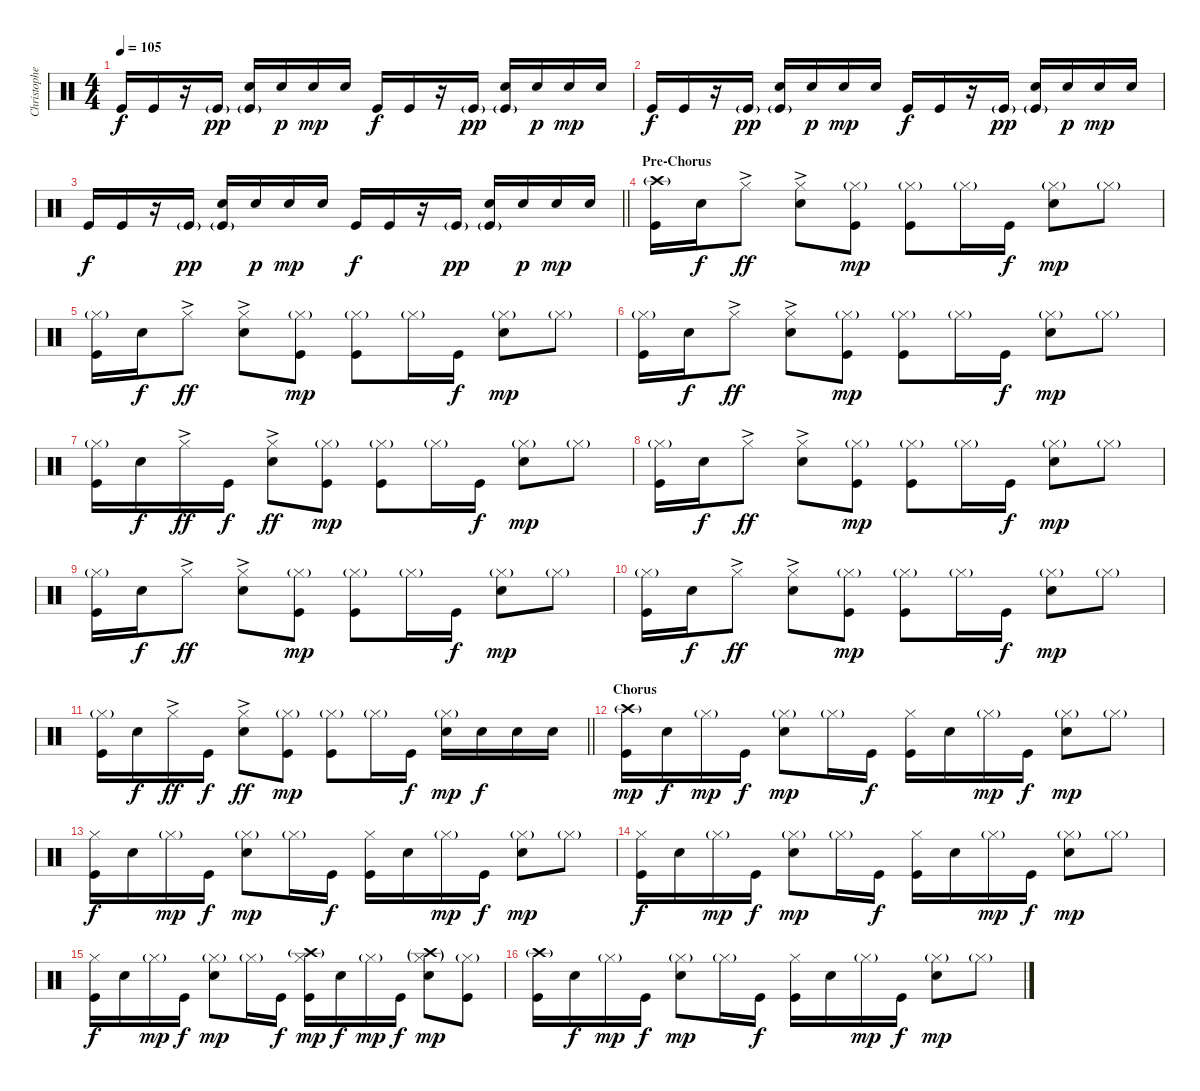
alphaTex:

\track ("Christopher - Drums" "Christophe") {instrument percussion}
\staff {score}
\articulation defaults
\ts (4 4)
\tempo 105
\clef neutral
\ks c "Kick (hit)".16{dy f} "Kick (hit)".16
r.16 "Kick (hit)"{g}.16{dy pp} ("Snare (hit) 2" "Kick (hit)"{g}).16 "Snare (hit) 2".16{dy p} "Snare (hit) 2".16{dy mp} "Snare (hit) 2".16 "Kick (hit)".16{dy f} "Kick (hit)".16 r.16 "Kick (hit)"{g}.16{dy pp} ("Snare (hit) 2" "Kick (hit)"{g}).16 "Snare (hit) 2".16{dy p} "Snare (hit) 2".16{dy mp} "Snare (hit) 2".16 |
"Kick (hit)".16{dy f} "Kick (hit)".16 r.16 "Kick (hit)"{g}.16{dy pp} ("Snare (hit) 2" "Kick (hit)"{g}).16 "Snare (hit) 2".16{dy p} "Snare (hit) 2".16{dy mp} "Snare (hit) 2".16 "Kick (hit)".16{dy f} "Kick (hit)".16 r.16 "Kick (hit)"{g}.16{dy pp} ("Snare (hit) 2" "Kick (hit)"{g}).16 "Snare (hit) 2".16{dy p} "Snare (hit) 2".16{dy mp} "Snare (hit) 2".16 |
\barLineRight lightlight "Kick (hit)".16{dy f} "Kick (hit)".16
r.16 "Kick (hit)"{g}.16{dy pp} ("Snare (hit) 2" "Kick (hit)"{g}).16 "Snare (hit) 2".16{dy p} "Snare (hit) 2".16{dy mp} "Snare (hit) 2".16 "Kick (hit)".16{dy f} "Kick (hit)".16 r.16 "Kick (hit)"{g}.16{dy pp} ("Snare (hit) 2" "Kick (hit)"{g}).16 "Snare (hit) 2".16{dy p} "Snare (hit) 2".16{dy mp} "Snare (hit) 2".16 |
\section ("" "Pre-Chorus")
("Crash high (hit)"{g} "Kick (hit)").16 "Snare (hit) 2".16{dy f} "Hi-Hat (closed)"{ac}.8{dy ff} ("Hi-Hat (closed)"{ac} "Snare (hit) 2").8 ("Hi-Hat (closed)"{g} "Kick (hit)").8{dy mp} ("Hi-Hat (closed)"{g} "Kick (hit)").8 "Hi-Hat (closed)"{g}.16 "Kick (hit)".16{dy f} ("Hi-Hat (closed)"{g} "Snare (hit) 2").8{dy mp} "Hi-Hat (closed)"{g}.8 |
("Hi-Hat (closed)"{g} "Kick (hit)").16 "Snare (hit) 2".16{dy f} "Hi-Hat (closed)"{ac}.8{dy ff} ("Hi-Hat (closed)"{ac} "Snare (hit) 2").8 ("Hi-Hat (closed)"{g} "Kick (hit)").8{dy mp} ("Hi-Hat (closed)"{g} "Kick (hit)").8 "Hi-Hat (closed)"{g}.16 "Kick (hit)".16{dy f} ("Hi-Hat (closed)"{g} "Snare (hit) 2").8{dy mp} "Hi-Hat (closed)"{g}.8 |
("Hi-Hat (closed)"{g} "Kick (hit)").16 "Snare (hit) 2".16{dy f} "Hi-Hat (closed)"{ac}.8{dy ff} ("Hi-Hat (closed)"{ac} "Snare (hit) 2").8 ("Hi-Hat (closed)"{g} "Kick (hit)").8{dy mp} ("Hi-Hat (closed)"{g} "Kick (hit)").8 "Hi-Hat (closed)"{g}.16 "Kick (hit)".16{dy f} ("Hi-Hat (closed)"{g} "Snare (hit) 2").8{dy mp} "Hi-Hat (closed)"{g}.8 |
("Hi-Hat (closed)"{g} "Kick (hit)").16 "Snare (hit) 2".16{dy f} "Hi-Hat (closed)"{ac}.16{dy ff} "Kick (hit)".16{dy f} ("Hi-Hat (closed)"{ac} "Snare (hit) 2").8{dy ff} ("Hi-Hat (closed)"{g} "Kick (hit)").8{dy mp} ("Hi-Hat (closed)"{g} "Kick (hit)").8 "Hi-Hat (closed)"{g}.16 "Kick (hit)".16{dy f} ("Hi-Hat (closed)"{g} "Snare (hit) 2").8{dy mp} "Hi-Hat (closed)"{g}.8 |
("Hi-Hat (closed)"{g} "Kick (hit)").16 "Snare (hit) 2".16{dy f} "Hi-Hat (closed)"{ac}.8{dy ff} ("Hi-Hat (closed)"{ac} "Snare (hit) 2").8 ("Hi-Hat (closed)"{g} "Kick (hit)").8{dy mp} ("Hi-Hat (closed)"{g} "Kick (hit)").8 "Hi-Hat (closed)"{g}.16 "Kick (hit)".16{dy f} ("Hi-Hat (closed)"{g} "Snare (hit) 2").8{dy mp} "Hi-Hat (closed)"{g}.8 |
("Hi-Hat (closed)"{g} "Kick (hit)").16 "Snare (hit) 2".16{dy f} "Hi-Hat (closed)"{ac}.8{dy ff} ("Hi-Hat (closed)"{ac} "Snare (hit) 2").8 ("Hi-Hat (closed)"{g} "Kick (hit)").8{dy mp} ("Hi-Hat (closed)"{g} "Kick (hit)").8 "Hi-Hat (closed)"{g}.16 "Kick (hit)".16{dy f} ("Hi-Hat (closed)"{g} "Snare (hit) 2").8{dy mp} "Hi-Hat (closed)"{g}.8 |
("Hi-Hat (closed)"{g} "Kick (hit)").16 "Snare (hit) 2".16{dy f} "Hi-Hat (closed)"{ac}.8{dy ff} ("Hi-Hat (closed)"{ac} "Snare (hit) 2").8 ("Hi-Hat (closed)"{g} "Kick (hit)").8{dy mp} ("Hi-Hat (closed)"{g} "Kick (hit)").8 "Hi-Hat (closed)"{g}.16 "Kick (hit)".16{dy f} ("Hi-Hat (closed)"{g} "Snare (hit) 2").8{dy mp} "Hi-Hat (closed)"{g}.8 |
\barLineRight lightlight
("Hi-Hat (closed)"{g} "Kick (hit)").16 "Snare (hit) 2".16{dy f} "Hi-Hat (closed)"{ac}.16{dy ff} "Kick (hit)".16{dy f} ("Hi-Hat (closed)"{ac} "Snare (hit) 2").8{dy ff} ("Hi-Hat (closed)"{g} "Kick (hit)").8{dy mp} ("Hi-Hat (closed)"{g} "Kick (hit)").8 "Hi-Hat (closed)"{g}.16 "Kick (hit)".16{dy f} ("Hi-Hat (closed)"{g} "Snare (hit) 2").16{dy mp} "Snare (hit) 2".16{dy f} "Snare (hit) 2".16 "Snare (hit) 2".16 |
\section ("" "Chorus")
("Crash high (hit)"{g} "Kick (hit)").16{dy mp} "Snare (hit) 2".16{dy f} "Hi-Hat (closed)"{g}.16{dy mp} "Kick (hit)".16{dy f} ("Hi-Hat (closed)"{g} "Snare (hit) 2").8{dy mp} "Hi-Hat (closed)"{g}.16 "Kick (hit)".16{dy f} ("Hi-Hat (closed)" "Kick (hit)").16 "Snare (hit) 2".16 "Hi-Hat (closed)"{g}.16{dy mp} "Kick (hit)".16{dy f} ("Hi-Hat (closed)"{g} "Snare (hit) 2").8{dy mp} "Hi-Hat (closed)"{g}.8 |
("Hi-Hat (closed)" "Kick (hit)").16{dy f} "Snare (hit) 2".16 "Hi-Hat (closed)"{g}.16{dy mp} "Kick (hit)".16{dy f} ("Hi-Hat (closed)"{g} "Snare (hit) 2").8{dy mp} "Hi-Hat (closed)"{g}.16 "Kick (hit)".16{dy f} ("Hi-Hat (closed)" "Kick (hit)").16 "Snare (hit) 2".16 "Hi-Hat (closed)"{g}.16{dy mp} "Kick (hit)".16{dy f} ("Hi-Hat (closed)"{g} "Snare (hit) 2").8{dy mp} "Hi-Hat (closed)"{g}.8 |
("Hi-Hat (closed)" "Kick (hit)").16{dy f} "Snare (hit) 2".16 "Hi-Hat (closed)"{g}.16{dy mp} "Kick (hit)".16{dy f} ("Hi-Hat (closed)"{g} "Snare (hit) 2").8{dy mp} "Hi-Hat (closed)"{g}.16 "Kick (hit)".16{dy f} ("Hi-Hat (closed)" "Kick (hit)").16 "Snare (hit) 2".16 "Hi-Hat (closed)"{g}.16{dy mp} "Kick (hit)".16{dy f} ("Hi-Hat (closed)"{g} "Snare (hit) 2").8{dy mp} "Hi-Hat (closed)"{g}.8 |
("Hi-Hat (closed)" "Kick (hit)").16{dy f} "Snare (hit) 2".16 "Hi-Hat (closed)"{g}.16{dy mp} "Kick (hit)".16{dy f} ("Hi-Hat (closed)"{g} "Snare (hit) 2").8{dy mp} "Hi-Hat (closed)"{g}.16 "Kick (hit)".16{dy f} ("Crash high (hit)"{g} "Hi-Hat (closed)" "Kick (hit)").16{dy mp} "Snare (hit) 2".16{dy f} "Hi-Hat (closed)"{g}.16{dy mp} "Kick (hit)".16{dy f} ("Crash high (hit)"{g} "Hi-Hat (closed)"{g} "Snare (hit) 2").8{dy mp} ("Hi-Hat (closed)"{g} "Kick (hit)").8 |
("Crash high (hit)"{g} "Kick (hit)").16 "Snare (hit) 2".16{dy f} "Hi-Hat (closed)"{g}.16{dy mp} "Kick (hit)".16{dy f} ("Hi-Hat (closed)"{g} "Snare (hit) 2").8{dy mp} "Hi-Hat (closed)"{g}.16 "Kick (hit)".16{dy f} ("Hi-Hat (closed)" "Kick (hit)").16 "Snare (hit) 2".16 "Hi-Hat (closed)"{g}.16{dy mp} "Kick (hit)".16{dy f} ("Hi-Hat (closed)"{g} "Snare (hit) 2").8{dy mp} "Hi-Hat (closed)"{g}.8
